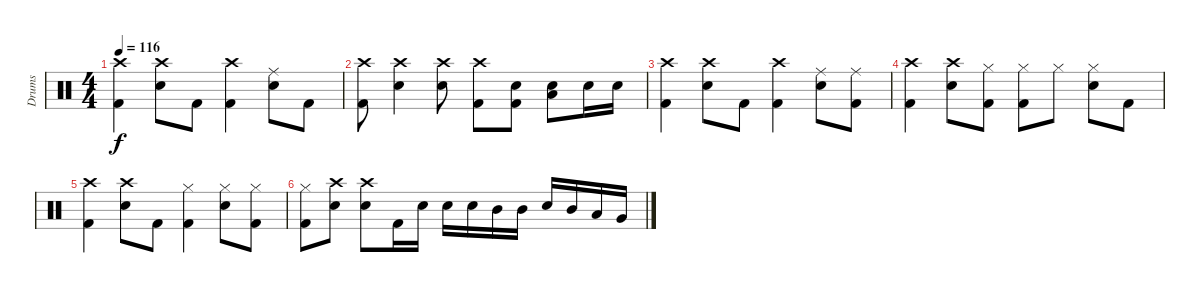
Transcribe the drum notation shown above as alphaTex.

\track ("Drums" "Drums") {instrument percussion}
\staff {score}
\articulation defaults
\ts (4 4)
\tempo 116
\clef neutral
\ks c
("Crash high (hit)" "Kick (hit) 2").4{dy f} ("Crash high (hit)" "Electric Snare (hit)").8 "Kick (hit) 2".8 ("Crash high (hit)" "Kick (hit) 2").4 ("Ride (middle)" "Electric Snare (hit)").8 "Kick (hit) 2".8 |
("Crash high (hit)" "Kick (hit) 2").8 ("Crash high (hit)" "Electric Snare (hit)").4 ("Crash high (hit)" "Electric Snare (hit)").8 ("Crash high (hit)" "Kick (hit) 2").8 ("Electric Snare (hit)" "Kick (hit) 2").8 ("Low Tom (hit)" "Electric Snare (hit)").8 "Electric Snare (hit)".16 "Electric Snare (hit)".16 |
("Crash high (hit)" "Kick (hit) 2").4 ("Crash high (hit)" "Electric Snare (hit)").8 "Kick (hit) 2".8 ("Crash high (hit)" "Kick (hit) 2").4 ("Ride (middle)" "Electric Snare (hit)").8 ("Ride (middle)" "Kick (hit) 2").8 |
("Crash high (hit)" "Kick (hit) 2").4 ("Crash high (hit)" "Electric Snare (hit)").8 ("Hi-Hat (closed)" "Kick (hit) 2").8 ("Hi-Hat (closed)" "Kick (hit) 2").8 "Hi-Hat (closed)".8 ("Hi-Hat (closed)" "Electric Snare (hit)").8 "Kick (hit) 2".8 |
("Crash high (hit)" "Kick (hit) 2").4 ("Crash high (hit)" "Electric Snare (hit)").8 "Kick (hit) 2".8 ("Hi-Hat (closed)" "Kick (hit) 2").4 ("Hi-Hat (closed)" "Electric Snare (hit)").8 ("Hi-Hat (closed)" "Kick (hit) 2").8 |
("Hi-Hat (closed)" "Kick (hit) 2").8 ("Crash high (hit)" "Electric Snare (hit)").8 ("Crash high (hit)" "Electric Snare (hit)").8 "Kick (hit) 2".16 "Electric Snare (hit)".16 "Electric Snare (hit)".16 "Electric Snare (hit)".16 "Mid Tom (hit)".16 "Mid Tom (hit)".16 "Electric Snare (hit)".16 "Mid Tom (hit)".16 "Low Tom (hit)".16 "Very Low Tom (hit)".16
